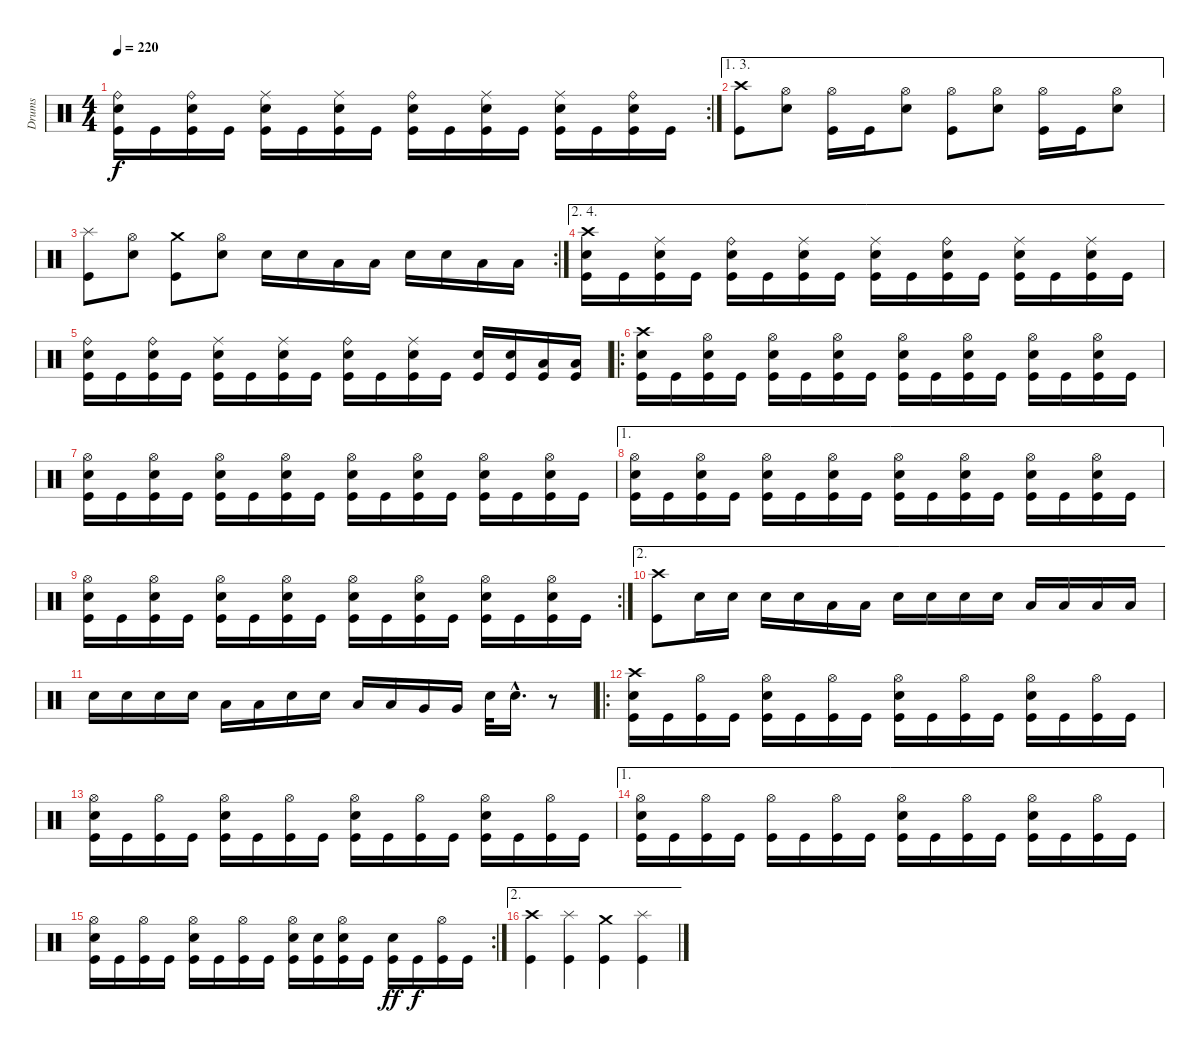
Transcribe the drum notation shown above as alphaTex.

\track ("Drums" "Drums") {instrument percussion}
\staff {score}
\articulation defaults
\rc 2
\ts (4 4)
\tempo 220
\clef neutral
\ks c
("Ride (bell)" "Electric Snare (hit)" "Kick (hit)").16{dy f} "Kick (hit)".16 ("Ride (bell)" "Electric Snare (hit)" "Kick (hit)").16 "Kick (hit)".16 ("Ride (middle)" "Electric Snare (hit)" "Kick (hit)").16 "Kick (hit)".16 ("Ride (middle)" "Electric Snare (hit)" "Kick (hit)").16 "Kick (hit)".16 ("Ride (bell)" "Electric Snare (hit)" "Kick (hit)").16 "Kick (hit)".16 ("Ride (middle)" "Electric Snare (hit)" "Kick (hit)").16 "Kick (hit)".16 ("Ride (middle)" "Electric Snare (hit)" "Kick (hit)").16 "Kick (hit)".16 ("Ride (bell)" "Electric Snare (hit)" "Kick (hit)").16 "Kick (hit)".16 |
\ae (1 3)
("Crash high (hit)" "Kick (hit)").8 ("Hi-Hat (open)" "Electric Snare (hit)").8 ("Hi-Hat (open)" "Kick (hit)").16 "Kick (hit)".16 ("Hi-Hat (open)" "Electric Snare (hit)").8 ("Hi-Hat (open)" "Kick (hit)").8 ("Hi-Hat (open)" "Electric Snare (hit)").8 ("Hi-Hat (open)" "Kick (hit)").16 "Kick (hit)".16 ("Hi-Hat (open)" "Electric Snare (hit)").8 |
\rc 2
("Splash (hit)" "Kick (hit)").8 ("Hi-Hat (open)" "Electric Snare (hit)").8 ("Crash medium (hit)" "Kick (hit)").8 ("Hi-Hat (open)" "Electric Snare (hit)").8 "Electric Snare (hit)".16 "Electric Snare (hit)".16 "Low Tom (hit)".16 "Low Tom (hit)".16 "Electric Snare (hit)".16 "Electric Snare (hit)".16 "Low Tom (hit)".16 "Low Tom (hit)".16 |
\ae (2 4)
("Crash high (hit)" "Electric Snare (hit)" "Kick (hit)").16 "Kick (hit)".16 ("Ride (middle)" "Electric Snare (hit)" "Kick (hit)").16 "Kick (hit)".16 ("Ride (bell)" "Electric Snare (hit)" "Kick (hit)").16 "Kick (hit)".16 ("Ride (middle)" "Electric Snare (hit)" "Kick (hit)").16 "Kick (hit)".16 ("Ride (middle)" "Electric Snare (hit)" "Kick (hit)").16 "Kick (hit)".16 ("Ride (bell)" "Electric Snare (hit)" "Kick (hit)").16 "Kick (hit)".16 ("Ride (middle)" "Electric Snare (hit)" "Kick (hit)").16 "Kick (hit)".16 ("Ride (middle)" "Electric Snare (hit)" "Kick (hit)").16 "Kick (hit)".16 |
("Ride (bell)" "Electric Snare (hit)" "Kick (hit)").16 "Kick (hit)".16 ("Ride (bell)" "Electric Snare (hit)" "Kick (hit)").16 "Kick (hit)".16 ("Ride (middle)" "Electric Snare (hit)" "Kick (hit)").16 "Kick (hit)".16 ("Ride (middle)" "Electric Snare (hit)" "Kick (hit)").16 "Kick (hit)".16 ("Ride (bell)" "Electric Snare (hit)" "Kick (hit)").16 "Kick (hit)".16 ("Ride (middle)" "Electric Snare (hit)" "Kick (hit)").16 "Kick (hit)".16 ("Electric Snare (hit)" "Kick (hit)").16 ("Electric Snare (hit)" "Kick (hit)").16 ("Low Tom (hit)" "Kick (hit)").16 ("Low Tom (hit)" "Kick (hit)").16 |
\ro
("Crash high (hit)" "Electric Snare (hit)" "Kick (hit)").16 "Kick (hit)".16 ("Hi-Hat (open)" "Electric Snare (hit)" "Kick (hit)").16 "Kick (hit)".16 ("Hi-Hat (open)" "Electric Snare (hit)" "Kick (hit)").16 "Kick (hit)".16 ("Hi-Hat (open)" "Electric Snare (hit)" "Kick (hit)").16 "Kick (hit)".16 ("Hi-Hat (open)" "Electric Snare (hit)" "Kick (hit)").16 "Kick (hit)".16 ("Hi-Hat (open)" "Electric Snare (hit)" "Kick (hit)").16 "Kick (hit)".16 ("Hi-Hat (open)" "Electric Snare (hit)" "Kick (hit)").16 "Kick (hit)".16 ("Hi-Hat (open)" "Electric Snare (hit)" "Kick (hit)").16 "Kick (hit)".16 |
("Hi-Hat (open)" "Electric Snare (hit)" "Kick (hit)").16 "Kick (hit)".16 ("Hi-Hat (open)" "Electric Snare (hit)" "Kick (hit)").16 "Kick (hit)".16 ("Hi-Hat (open)" "Electric Snare (hit)" "Kick (hit)").16 "Kick (hit)".16 ("Hi-Hat (open)" "Electric Snare (hit)" "Kick (hit)").16 "Kick (hit)".16 ("Hi-Hat (open)" "Electric Snare (hit)" "Kick (hit)").16 "Kick (hit)".16 ("Hi-Hat (open)" "Electric Snare (hit)" "Kick (hit)").16 "Kick (hit)".16 ("Hi-Hat (open)" "Electric Snare (hit)" "Kick (hit)").16 "Kick (hit)".16 ("Hi-Hat (open)" "Electric Snare (hit)" "Kick (hit)").16 "Kick (hit)".16 |
\ae 1
("Hi-Hat (open)" "Electric Snare (hit)" "Kick (hit)").16 "Kick (hit)".16 ("Hi-Hat (open)" "Electric Snare (hit)" "Kick (hit)").16 "Kick (hit)".16 ("Hi-Hat (open)" "Electric Snare (hit)" "Kick (hit)").16 "Kick (hit)".16 ("Hi-Hat (open)" "Electric Snare (hit)" "Kick (hit)").16 "Kick (hit)".16 ("Hi-Hat (open)" "Electric Snare (hit)" "Kick (hit)").16 "Kick (hit)".16 ("Hi-Hat (open)" "Electric Snare (hit)" "Kick (hit)").16 "Kick (hit)".16 ("Hi-Hat (open)" "Electric Snare (hit)" "Kick (hit)").16 "Kick (hit)".16 ("Hi-Hat (open)" "Electric Snare (hit)" "Kick (hit)").16 "Kick (hit)".16 |
\rc 2
("Hi-Hat (open)" "Electric Snare (hit)" "Kick (hit)").16 "Kick (hit)".16 ("Hi-Hat (open)" "Electric Snare (hit)" "Kick (hit)").16 "Kick (hit)".16 ("Hi-Hat (open)" "Electric Snare (hit)" "Kick (hit)").16 "Kick (hit)".16 ("Hi-Hat (open)" "Electric Snare (hit)" "Kick (hit)").16 "Kick (hit)".16 ("Hi-Hat (open)" "Electric Snare (hit)" "Kick (hit)").16 "Kick (hit)".16 ("Hi-Hat (open)" "Electric Snare (hit)" "Kick (hit)").16 "Kick (hit)".16 ("Hi-Hat (open)" "Electric Snare (hit)" "Kick (hit)").16 "Kick (hit)".16 ("Hi-Hat (open)" "Electric Snare (hit)" "Kick (hit)").16 "Kick (hit)".16 |
\ae 2
("Crash high (hit)" "Kick (hit)").8 "Electric Snare (hit)".16 "Electric Snare (hit)".16 "Electric Snare (hit)".16 "Electric Snare (hit)".16 "Low Tom (hit)".16 "Low Tom (hit)".16 "Electric Snare (hit)".16 "Electric Snare (hit)".16 "Electric Snare (hit)".16 "Electric Snare (hit)".16 "Low Tom (hit)".16 "Low Tom (hit)".16 "Low Tom (hit)".16 "Low Tom (hit)".16 |
"Electric Snare (hit)".16 "Electric Snare (hit)".16 "Electric Snare (hit)".16 "Electric Snare (hit)".16 "Low Tom (hit)".16 "Low Tom (hit)".16 "Electric Snare (hit)".16 "Electric Snare (hit)".16 "Low Tom (hit)".16 "Low Tom (hit)".16 "Very Low Tom (hit)".16 "Very Low Tom (hit)".16 "Electric Snare (hit)".32 "Electric Snare (hit)"{hac}.16{d} r.8 |
\ro
("Crash high (hit)" "Electric Snare (hit)" "Kick (hit)").16 "Kick (hit)".16 ("Hi-Hat (open)" "Kick (hit)").16 "Kick (hit)".16 ("Hi-Hat (open)" "Electric Snare (hit)" "Kick (hit)").16 "Kick (hit)".16 ("Hi-Hat (open)" "Kick (hit)").16 "Kick (hit)".16 ("Hi-Hat (open)" "Electric Snare (hit)" "Kick (hit)").16 "Kick (hit)".16 ("Hi-Hat (open)" "Kick (hit)").16 "Kick (hit)".16 ("Hi-Hat (open)" "Electric Snare (hit)" "Kick (hit)").16 "Kick (hit)".16 ("Hi-Hat (open)" "Kick (hit)").16 "Kick (hit)".16 |
("Hi-Hat (open)" "Electric Snare (hit)" "Kick (hit)").16 "Kick (hit)".16 ("Hi-Hat (open)" "Kick (hit)").16 "Kick (hit)".16 ("Hi-Hat (open)" "Electric Snare (hit)" "Kick (hit)").16 "Kick (hit)".16 ("Hi-Hat (open)" "Kick (hit)").16 "Kick (hit)".16 ("Hi-Hat (open)" "Electric Snare (hit)" "Kick (hit)").16 "Kick (hit)".16 ("Hi-Hat (open)" "Kick (hit)").16 "Kick (hit)".16 ("Hi-Hat (open)" "Electric Snare (hit)" "Kick (hit)").16 "Kick (hit)".16 ("Hi-Hat (open)" "Kick (hit)").16 "Kick (hit)".16 |
\ae 1
("Hi-Hat (open)" "Electric Snare (hit)" "Kick (hit)").16 "Kick (hit)".16 ("Hi-Hat (open)" "Kick (hit)").16 "Kick (hit)".16 ("Hi-Hat (open)" "Kick (hit)").16 "Kick (hit)".16 ("Hi-Hat (open)" "Kick (hit)").16 "Kick (hit)".16 ("Hi-Hat (open)" "Electric Snare (hit)" "Kick (hit)").16 "Kick (hit)".16 ("Hi-Hat (open)" "Kick (hit)").16 "Kick (hit)".16 ("Hi-Hat (open)" "Electric Snare (hit)" "Kick (hit)").16 "Kick (hit)".16 ("Hi-Hat (open)" "Kick (hit)").16 "Kick (hit)".16 |
\rc 2
("Hi-Hat (open)" "Electric Snare (hit)" "Kick (hit)").16 "Kick (hit)".16 ("Hi-Hat (open)" "Kick (hit)").16 "Kick (hit)".16 ("Hi-Hat (open)" "Electric Snare (hit)" "Kick (hit)").16 "Kick (hit)".16 ("Hi-Hat (open)" "Kick (hit)").16 "Kick (hit)".16 ("Hi-Hat (open)" "Electric Snare (hit)" "Kick (hit)").16 ("Electric Snare (hit)" "Kick (hit)").16 ("Hi-Hat (open)" "Electric Snare (hit)" "Kick (hit)").16 "Kick (hit)".16 ("Electric Snare (hit)" "Kick (hit)").16{dy ff} "Kick (hit)".16{dy f} ("Hi-Hat (open)" "Kick (hit)").16 "Kick (hit)".16 |
\ae 2
("Crash high (hit)" "Kick (hit)").4 ("Splash (hit)" "Kick (hit)").4 ("Crash medium (hit)" "Kick (hit)").4 ("Splash (hit)" "Kick (hit)").4
